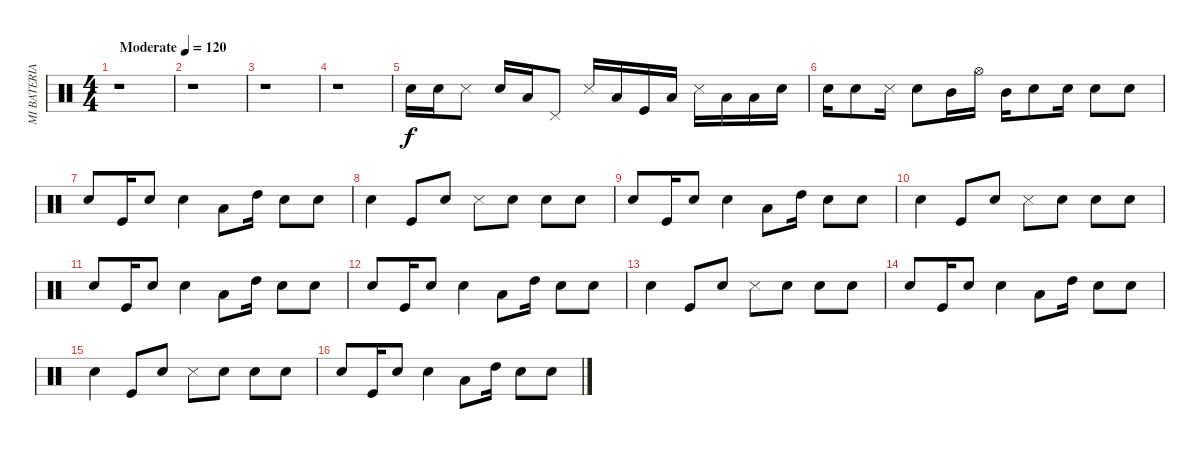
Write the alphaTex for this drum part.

\track ("MI BATERIA" "MI BATERIA") {instrument percussion}
\staff {score}
\articulation defaults
\ts (4 4)
\tempo (120 "Moderate")
\clef neutral
\ks c
r.1{dy f} |
r.1 |
r.1 |
r.1 |
"Snare (hit) 2".16 "Electric Snare (hit)".16 "Snare (side stick) 3".8 "Snare (hit) 2".16 "Low Floor Tom (hit)".16 "Pedal Hi-Hat (hit)".8 "Snare (side stick) 3".16 "Low Floor Tom (hit)".16 "Kick (hit)".16 "Low Floor Tom (hit)".16 "Snare (side stick) 3".16 "Low Floor Tom (hit)".16 "Low Floor Tom (hit)".16 "Snare (hit) 2".16 |
"Snare (hit) 2".16 "Electric Snare (hit)".8 "Snare (side stick) 3".16 "Electric Snare (hit)".8 "Mid Tom (hit)".16 "Hi-Hat (open)".16 "Mid Tom (hit)".16 "Electric Snare (hit)".8 "Snare (hit) 2".16 "Electric Snare (hit)".8 "Snare (hit) 2".8 |
"Snare (hit) 2".8 "Kick (hit)".16 "Electric Snare (hit)".8 "Snare (hit) 2".4 "Low Floor Tom (hit)".8 "High Tom (hit)".16 "Snare (hit) 2".8 "Electric Snare (hit)".8 |
"Snare (hit) 2".4 "Kick (hit)".8 "Electric Snare (hit)".8 "Snare (side stick) 3".8 "Electric Snare (hit)".8 "Snare (hit) 2".8 "Electric Snare (hit)".8 |
"Snare (hit) 2".8 "Kick (hit)".16 "Electric Snare (hit)".8 "Snare (hit) 2".4 "Low Floor Tom (hit)".8 "High Tom (hit)".16 "Snare (hit) 2".8 "Electric Snare (hit)".8 |
"Snare (hit) 2".4 "Kick (hit)".8 "Electric Snare (hit)".8 "Snare (side stick) 3".8 "Electric Snare (hit)".8 "Snare (hit) 2".8 "Electric Snare (hit)".8 |
"Snare (hit) 2".8 "Kick (hit)".16 "Electric Snare (hit)".8 "Snare (hit) 2".4 "Low Floor Tom (hit)".8 "High Tom (hit)".16 "Snare (hit) 2".8 "Electric Snare (hit)".8 |
"Snare (hit) 2".8 "Kick (hit)".16 "Electric Snare (hit)".8 "Snare (hit) 2".4 "Low Floor Tom (hit)".8 "High Tom (hit)".16 "Snare (hit) 2".8 "Electric Snare (hit)".8 |
"Snare (hit) 2".4 "Kick (hit)".8 "Electric Snare (hit)".8 "Snare (side stick) 3".8 "Electric Snare (hit)".8 "Snare (hit) 2".8 "Electric Snare (hit)".8 |
"Snare (hit) 2".8 "Kick (hit)".16 "Electric Snare (hit)".8 "Snare (hit) 2".4 "Low Floor Tom (hit)".8 "High Tom (hit)".16 "Snare (hit) 2".8 "Electric Snare (hit)".8 |
"Snare (hit) 2".4 "Kick (hit)".8 "Electric Snare (hit)".8 "Snare (side stick) 3".8 "Electric Snare (hit)".8 "Snare (hit) 2".8 "Electric Snare (hit)".8 |
"Snare (hit) 2".8 "Kick (hit)".16 "Electric Snare (hit)".8 "Snare (hit) 2".4 "Low Floor Tom (hit)".8 "High Tom (hit)".16 "Snare (hit) 2".8 "Electric Snare (hit)".8
